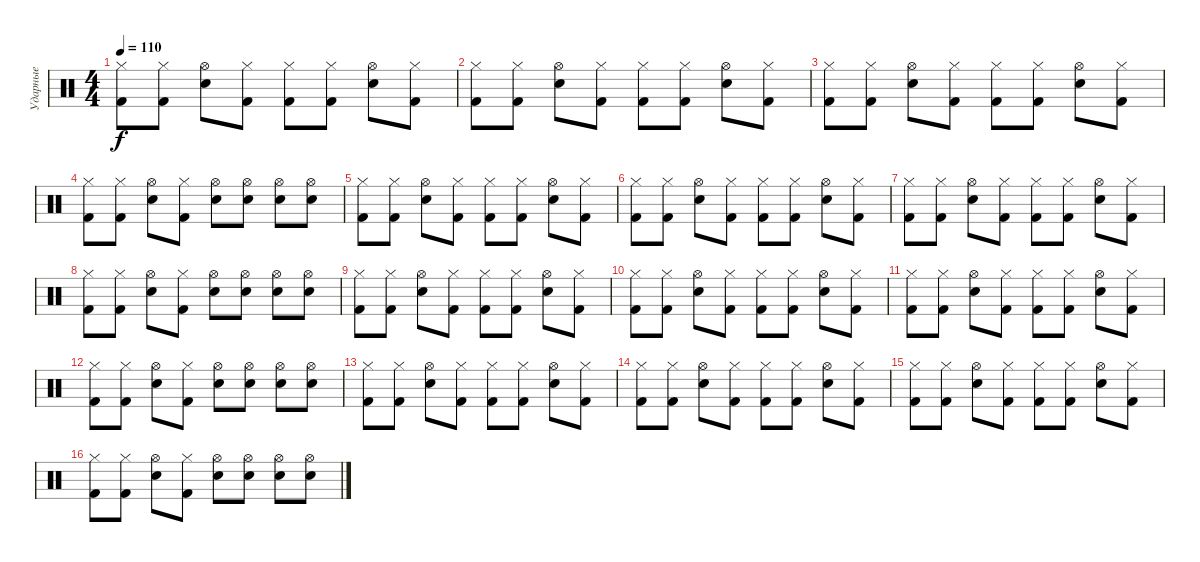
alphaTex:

\track ("Ударные" "Ударные") {instrument percussion}
\staff {score}
\articulation defaults
\ts (4 4)
\tempo 110
\clef neutral
\ks c
("Kick (hit) 2" "Hi-Hat (closed)").8{dy f} ("Kick (hit) 2" "Hi-Hat (closed)").8 ("Electric Snare (hit)" "Hi-Hat (open)").8 ("Kick (hit) 2" "Hi-Hat (closed)").8 ("Kick (hit) 2" "Hi-Hat (closed)").8 ("Kick (hit) 2" "Hi-Hat (closed)").8 ("Electric Snare (hit)" "Hi-Hat (open)").8 ("Kick (hit) 2" "Hi-Hat (closed)").8 |
("Kick (hit) 2" "Hi-Hat (closed)").8 ("Kick (hit) 2" "Hi-Hat (closed)").8 ("Electric Snare (hit)" "Hi-Hat (open)").8 ("Kick (hit) 2" "Hi-Hat (closed)").8 ("Kick (hit) 2" "Hi-Hat (closed)").8 ("Kick (hit) 2" "Hi-Hat (closed)").8 ("Electric Snare (hit)" "Hi-Hat (open)").8 ("Kick (hit) 2" "Hi-Hat (closed)").8 |
("Kick (hit) 2" "Hi-Hat (closed)").8 ("Kick (hit) 2" "Hi-Hat (closed)").8 ("Electric Snare (hit)" "Hi-Hat (open)").8 ("Kick (hit) 2" "Hi-Hat (closed)").8 ("Kick (hit) 2" "Hi-Hat (closed)").8 ("Kick (hit) 2" "Hi-Hat (closed)").8 ("Electric Snare (hit)" "Hi-Hat (open)").8 ("Kick (hit) 2" "Hi-Hat (closed)").8 |
("Kick (hit) 2" "Hi-Hat (closed)").8 ("Kick (hit) 2" "Hi-Hat (closed)").8 ("Electric Snare (hit)" "Hi-Hat (open)").8 ("Kick (hit) 2" "Hi-Hat (closed)").8 ("Electric Snare (hit)" "Hi-Hat (open)").8 ("Hi-Hat (open)" "Electric Snare (hit)").8 ("Electric Snare (hit)" "Hi-Hat (open)").8 ("Hi-Hat (open)" "Electric Snare (hit)").8 |
("Kick (hit) 2" "Hi-Hat (closed)").8 ("Kick (hit) 2" "Hi-Hat (closed)").8 ("Electric Snare (hit)" "Hi-Hat (open)").8 ("Kick (hit) 2" "Hi-Hat (closed)").8 ("Kick (hit) 2" "Hi-Hat (closed)").8 ("Kick (hit) 2" "Hi-Hat (closed)").8 ("Electric Snare (hit)" "Hi-Hat (open)").8 ("Kick (hit) 2" "Hi-Hat (closed)").8 |
("Kick (hit) 2" "Hi-Hat (closed)").8 ("Kick (hit) 2" "Hi-Hat (closed)").8 ("Electric Snare (hit)" "Hi-Hat (open)").8 ("Kick (hit) 2" "Hi-Hat (closed)").8 ("Kick (hit) 2" "Hi-Hat (closed)").8 ("Kick (hit) 2" "Hi-Hat (closed)").8 ("Electric Snare (hit)" "Hi-Hat (open)").8 ("Kick (hit) 2" "Hi-Hat (closed)").8 |
("Kick (hit) 2" "Hi-Hat (closed)").8 ("Kick (hit) 2" "Hi-Hat (closed)").8 ("Electric Snare (hit)" "Hi-Hat (open)").8 ("Kick (hit) 2" "Hi-Hat (closed)").8 ("Kick (hit) 2" "Hi-Hat (closed)").8 ("Kick (hit) 2" "Hi-Hat (closed)").8 ("Electric Snare (hit)" "Hi-Hat (open)").8 ("Kick (hit) 2" "Hi-Hat (closed)").8 |
("Kick (hit) 2" "Hi-Hat (closed)").8 ("Kick (hit) 2" "Hi-Hat (closed)").8 ("Electric Snare (hit)" "Hi-Hat (open)").8 ("Kick (hit) 2" "Hi-Hat (closed)").8 ("Electric Snare (hit)" "Hi-Hat (open)").8 ("Hi-Hat (open)" "Electric Snare (hit)").8 ("Electric Snare (hit)" "Hi-Hat (open)").8 ("Hi-Hat (open)" "Electric Snare (hit)").8 |
("Kick (hit) 2" "Hi-Hat (closed)").8 ("Kick (hit) 2" "Hi-Hat (closed)").8 ("Electric Snare (hit)" "Hi-Hat (open)").8 ("Kick (hit) 2" "Hi-Hat (closed)").8 ("Kick (hit) 2" "Hi-Hat (closed)").8 ("Kick (hit) 2" "Hi-Hat (closed)").8 ("Electric Snare (hit)" "Hi-Hat (open)").8 ("Kick (hit) 2" "Hi-Hat (closed)").8 |
("Kick (hit) 2" "Hi-Hat (closed)").8 ("Kick (hit) 2" "Hi-Hat (closed)").8 ("Electric Snare (hit)" "Hi-Hat (open)").8 ("Kick (hit) 2" "Hi-Hat (closed)").8 ("Kick (hit) 2" "Hi-Hat (closed)").8 ("Kick (hit) 2" "Hi-Hat (closed)").8 ("Electric Snare (hit)" "Hi-Hat (open)").8 ("Kick (hit) 2" "Hi-Hat (closed)").8 |
("Kick (hit) 2" "Hi-Hat (closed)").8 ("Kick (hit) 2" "Hi-Hat (closed)").8 ("Electric Snare (hit)" "Hi-Hat (open)").8 ("Kick (hit) 2" "Hi-Hat (closed)").8 ("Kick (hit) 2" "Hi-Hat (closed)").8 ("Kick (hit) 2" "Hi-Hat (closed)").8 ("Electric Snare (hit)" "Hi-Hat (open)").8 ("Kick (hit) 2" "Hi-Hat (closed)").8 |
("Kick (hit) 2" "Hi-Hat (closed)").8 ("Kick (hit) 2" "Hi-Hat (closed)").8 ("Electric Snare (hit)" "Hi-Hat (open)").8 ("Kick (hit) 2" "Hi-Hat (closed)").8 ("Electric Snare (hit)" "Hi-Hat (open)").8 ("Hi-Hat (open)" "Electric Snare (hit)").8 ("Electric Snare (hit)" "Hi-Hat (open)").8 ("Hi-Hat (open)" "Electric Snare (hit)").8 |
("Kick (hit) 2" "Hi-Hat (closed)").8 ("Kick (hit) 2" "Hi-Hat (closed)").8 ("Electric Snare (hit)" "Hi-Hat (open)").8 ("Kick (hit) 2" "Hi-Hat (closed)").8 ("Kick (hit) 2" "Hi-Hat (closed)").8 ("Kick (hit) 2" "Hi-Hat (closed)").8 ("Electric Snare (hit)" "Hi-Hat (open)").8 ("Kick (hit) 2" "Hi-Hat (closed)").8 |
("Kick (hit) 2" "Hi-Hat (closed)").8 ("Kick (hit) 2" "Hi-Hat (closed)").8 ("Electric Snare (hit)" "Hi-Hat (open)").8 ("Kick (hit) 2" "Hi-Hat (closed)").8 ("Kick (hit) 2" "Hi-Hat (closed)").8 ("Kick (hit) 2" "Hi-Hat (closed)").8 ("Electric Snare (hit)" "Hi-Hat (open)").8 ("Kick (hit) 2" "Hi-Hat (closed)").8 |
("Kick (hit) 2" "Hi-Hat (closed)").8 ("Kick (hit) 2" "Hi-Hat (closed)").8 ("Electric Snare (hit)" "Hi-Hat (open)").8 ("Kick (hit) 2" "Hi-Hat (closed)").8 ("Kick (hit) 2" "Hi-Hat (closed)").8 ("Kick (hit) 2" "Hi-Hat (closed)").8 ("Electric Snare (hit)" "Hi-Hat (open)").8 ("Kick (hit) 2" "Hi-Hat (closed)").8 |
("Kick (hit) 2" "Hi-Hat (closed)").8 ("Kick (hit) 2" "Hi-Hat (closed)").8 ("Electric Snare (hit)" "Hi-Hat (open)").8 ("Kick (hit) 2" "Hi-Hat (closed)").8 ("Electric Snare (hit)" "Hi-Hat (open)").8 ("Hi-Hat (open)" "Electric Snare (hit)").8 ("Electric Snare (hit)" "Hi-Hat (open)").8 ("Hi-Hat (open)" "Electric Snare (hit)").8
